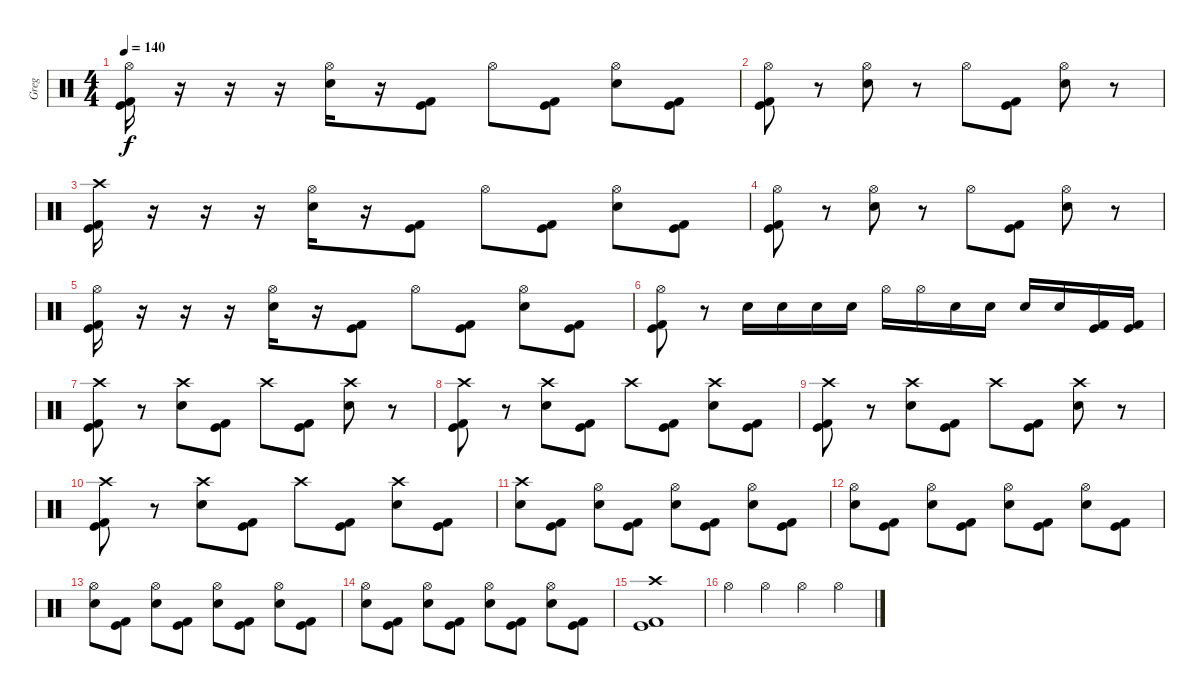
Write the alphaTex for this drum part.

\track ("Greg" "Greg") {instrument percussion}
\staff {score}
\articulation defaults
\ts (4 4)
\tempo 140
\clef neutral
\ks c
("Hi-Hat (open)" "Kick (hit)" "Kick (hit) 2").16{dy f} r.16 r.16 r.16 ("Hi-Hat (open)" "Snare (hit) 2").16 r.16 ("Kick (hit)" "Kick (hit) 2").8 "Hi-Hat (open)".8 ("Kick (hit)" "Kick (hit) 2").8 ("Hi-Hat (open)" "Snare (hit) 2").8 ("Kick (hit)" "Kick (hit) 2").8 |
("Hi-Hat (open)" "Kick (hit)" "Kick (hit) 2").8 r.8 ("Hi-Hat (open)" "Snare (hit) 2").8 r.8 "Hi-Hat (open)".8 ("Kick (hit)" "Kick (hit) 2").8 ("Hi-Hat (open)" "Snare (hit) 2").8 r.8 |
("Crash high (hit)" "Kick (hit)" "Kick (hit) 2").16 r.16 r.16 r.16 ("Hi-Hat (open)" "Snare (hit) 2").16 r.16 ("Kick (hit)" "Kick (hit) 2").8 "Hi-Hat (open)".8 ("Kick (hit)" "Kick (hit) 2").8 ("Hi-Hat (open)" "Snare (hit) 2").8 ("Kick (hit)" "Kick (hit) 2").8 |
("Hi-Hat (open)" "Kick (hit)" "Kick (hit) 2").8 r.8 ("Hi-Hat (open)" "Snare (hit) 2").8 r.8 "Hi-Hat (open)".8 ("Kick (hit)" "Kick (hit) 2").8 ("Hi-Hat (open)" "Snare (hit) 2").8 r.8 |
("Hi-Hat (open)" "Kick (hit)" "Kick (hit) 2").16 r.16 r.16 r.16 ("Hi-Hat (open)" "Snare (hit) 2").16 r.16 ("Kick (hit)" "Kick (hit) 2").8 "Hi-Hat (open)".8 ("Kick (hit)" "Kick (hit) 2").8 ("Hi-Hat (open)" "Snare (hit) 2").8 ("Kick (hit)" "Kick (hit) 2").8 |
("Hi-Hat (open)" "Kick (hit)" "Kick (hit) 2").8 r.8 "Snare (hit) 2".16 "Snare (hit) 2".16 "Snare (hit) 2".16 "Snare (hit) 2".16 "Hi-Hat (open)".16 "Hi-Hat (open)".16 "Snare (hit) 2".16 "Snare (hit) 2".16 "Snare (hit) 2".16 "Snare (hit) 2".16 ("Kick (hit)" "Kick (hit) 2").16 ("Kick (hit)" "Kick (hit) 2").16 |
("Crash high (hit)" "Kick (hit)" "Kick (hit) 2").8 r.8 ("Crash high (hit)" "Snare (hit) 2").8 ("Kick (hit)" "Kick (hit) 2").8 "Crash high (hit)".8 ("Kick (hit)" "Kick (hit) 2").8 ("Crash high (hit)" "Snare (hit) 2").8 r.8 |
("Crash high (hit)" "Kick (hit)" "Kick (hit) 2").8 r.8 ("Crash high (hit)" "Snare (hit) 2").8 ("Kick (hit)" "Kick (hit) 2").8 "Crash high (hit)".8 ("Kick (hit)" "Kick (hit) 2").8 ("Crash high (hit)" "Snare (hit) 2").8 ("Kick (hit)" "Kick (hit) 2").8 |
("Crash high (hit)" "Kick (hit)" "Kick (hit) 2").8 r.8 ("Crash high (hit)" "Snare (hit) 2").8 ("Kick (hit)" "Kick (hit) 2").8 "Crash high (hit)".8 ("Kick (hit)" "Kick (hit) 2").8 ("Crash high (hit)" "Snare (hit) 2").8 r.8 |
("Crash high (hit)" "Kick (hit)" "Kick (hit) 2").8 r.8 ("Crash high (hit)" "Snare (hit) 2").8 ("Kick (hit)" "Kick (hit) 2").8 "Crash high (hit)".8 ("Kick (hit)" "Kick (hit) 2").8 ("Crash high (hit)" "Snare (hit) 2").8 ("Kick (hit)" "Kick (hit) 2").8 |
("Crash high (hit)" "Snare (hit) 2").8 ("Kick (hit)" "Kick (hit) 2").8 ("Hi-Hat (open)" "Snare (hit) 2").8 ("Kick (hit)" "Kick (hit) 2").8 ("Hi-Hat (open)" "Snare (hit) 2").8 ("Kick (hit)" "Kick (hit) 2").8 ("Hi-Hat (open)" "Snare (hit) 2").8 ("Kick (hit)" "Kick (hit) 2").8 |
("Hi-Hat (open)" "Snare (hit) 2").8 ("Kick (hit)" "Kick (hit) 2").8 ("Hi-Hat (open)" "Snare (hit) 2").8 ("Kick (hit)" "Kick (hit) 2").8 ("Hi-Hat (open)" "Snare (hit) 2").8 ("Kick (hit)" "Kick (hit) 2").8 ("Hi-Hat (open)" "Snare (hit) 2").8 ("Kick (hit)" "Kick (hit) 2").8 |
("Hi-Hat (open)" "Snare (hit) 2").8 ("Kick (hit)" "Kick (hit) 2").8 ("Hi-Hat (open)" "Snare (hit) 2").8 ("Kick (hit)" "Kick (hit) 2").8 ("Hi-Hat (open)" "Snare (hit) 2").8 ("Kick (hit)" "Kick (hit) 2").8 ("Hi-Hat (open)" "Snare (hit) 2").8 ("Kick (hit)" "Kick (hit) 2").8 |
("Hi-Hat (open)" "Snare (hit) 2").8 ("Kick (hit)" "Kick (hit) 2").8 ("Hi-Hat (open)" "Snare (hit) 2").8 ("Kick (hit)" "Kick (hit) 2").8 ("Hi-Hat (open)" "Snare (hit) 2").8 ("Kick (hit)" "Kick (hit) 2").8 ("Hi-Hat (open)" "Snare (hit) 2").8 ("Kick (hit)" "Kick (hit) 2").8 |
("Crash high (hit)" "Kick (hit)" "Kick (hit) 2").1 |
"Hi-Hat (open)".4 "Hi-Hat (open)".4 "Hi-Hat (open)".4 "Hi-Hat (open)".4
